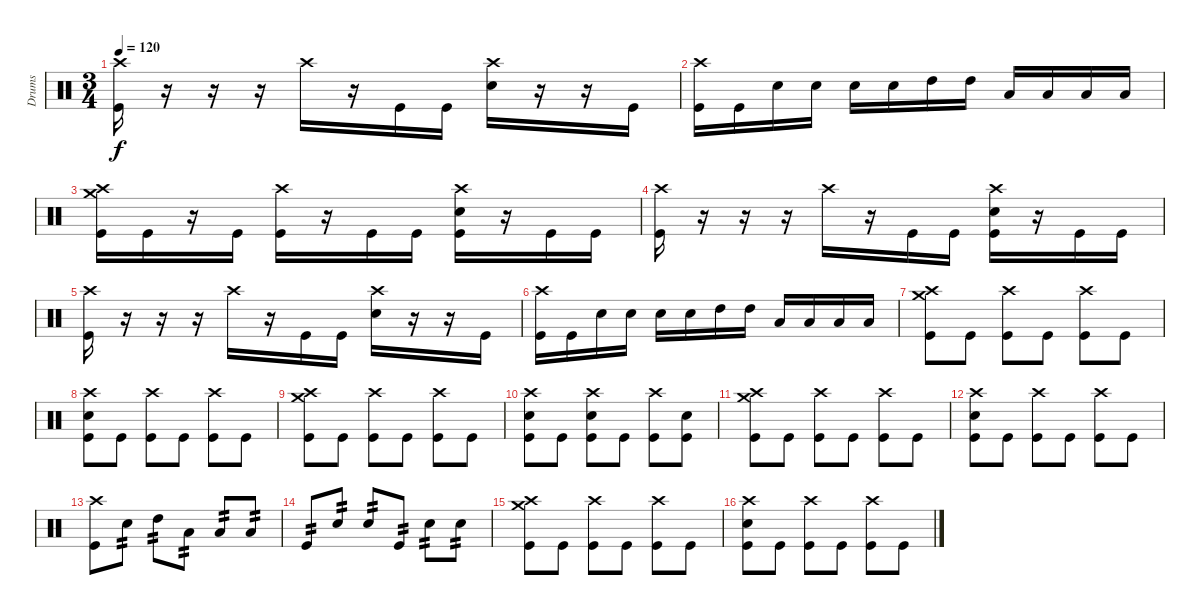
\track ("Drums" "Drums") {instrument percussion}
\staff {score}
\articulation defaults
\ts (3 4)
\tempo 120
\clef neutral
\ks c
("Crash high (hit)" "Kick (hit)").16{dy f} r.16 r.16 r.16 "Crash high (hit)".16 r.16 "Kick (hit)".16 "Kick (hit)".16 ("Crash high (hit)" "Snare (hit) 2").16 r.16 r.16 "Kick (hit)".16 |
("Crash high (hit)" "Kick (hit)").16 "Kick (hit)".16 "Snare (hit) 2".16 "Snare (hit) 2".16 "Snare (hit) 2".16 "Snare (hit) 2".16 "High Tom (hit)".16 "High Tom (hit)".16 "Low Tom (hit)".16 "Low Tom (hit)".16 "Low Tom (hit)".16 "Low Tom (hit)".16 |
("Crash high (hit)" "Crash medium (hit)" "Kick (hit)").16 "Kick (hit)".16 r.16 "Kick (hit)".16 ("Crash high (hit)" "Kick (hit)").16 r.16 "Kick (hit)".16 "Kick (hit)".16 ("Crash high (hit)" "Snare (hit) 2" "Kick (hit)").16 r.16 "Kick (hit)".16 "Kick (hit)".16 |
("Crash high (hit)" "Kick (hit)").16 r.16 r.16 r.16 "Crash high (hit)".16 r.16 "Kick (hit)".16 "Kick (hit)".16 ("Crash high (hit)" "Snare (hit) 2" "Kick (hit)").16 r.16 "Kick (hit)".16 "Kick (hit)".16 |
("Crash high (hit)" "Kick (hit)").16 r.16 r.16 r.16 "Crash high (hit)".16 r.16 "Kick (hit)".16 "Kick (hit)".16 ("Crash high (hit)" "Snare (hit) 2").16 r.16 r.16 "Kick (hit)".16 |
("Crash high (hit)" "Kick (hit)").16 "Kick (hit)".16 "Snare (hit) 2".16 "Snare (hit) 2".16 "Snare (hit) 2".16 "Snare (hit) 2".16 "High Tom (hit)".16 "High Tom (hit)".16 "Low Tom (hit)".16 "Low Tom (hit)".16 "Low Tom (hit)".16 "Low Tom (hit)".16 |
("Crash high (hit)" "Crash medium (hit)" "Kick (hit)").8 "Kick (hit)".8 ("Crash high (hit)" "Kick (hit)").8 "Kick (hit)".8 ("Crash high (hit)" "Kick (hit)").8 "Kick (hit)".8 |
("Crash high (hit)" "Snare (hit) 2" "Kick (hit)").8 "Kick (hit)".8 ("Crash high (hit)" "Kick (hit)").8 "Kick (hit)".8 ("Crash high (hit)" "Kick (hit)").8 "Kick (hit)".8 |
("Crash medium (hit)" "Crash high (hit)" "Kick (hit)").8 "Kick (hit)".8 ("Crash high (hit)" "Kick (hit)").8 "Kick (hit)".8 ("Crash high (hit)" "Kick (hit)").8 "Kick (hit)".8 |
("Crash high (hit)" "Snare (hit) 2" "Kick (hit)").8 "Kick (hit)".8 ("Crash high (hit)" "Snare (hit) 2" "Kick (hit)").8 "Kick (hit)".8 ("Crash high (hit)" "Kick (hit)").8 ("Snare (hit) 2" "Kick (hit)").8 |
("Crash high (hit)" "Crash medium (hit)" "Kick (hit)").8 "Kick (hit)".8 ("Crash high (hit)" "Kick (hit)").8 "Kick (hit)".8 ("Crash high (hit)" "Kick (hit)").8 "Kick (hit)".8 |
("Crash high (hit)" "Snare (hit) 2" "Kick (hit)").8 "Kick (hit)".8 ("Crash high (hit)" "Kick (hit)").8 "Kick (hit)".8 ("Crash high (hit)" "Kick (hit)").8 "Kick (hit)".8 |
("Crash high (hit)" "Kick (hit)").8 "Snare (hit) 2".8{tp 2} "High Tom (hit)".8{tp 2} "Low Tom (hit)".8{tp 2} "Low Tom (hit)".8{tp 2} "Low Tom (hit)".8{tp 2} |
"Kick (hit)".8{tp 2} "Snare (hit) 2".8{tp 2} "Snare (hit) 2".8{tp 2} "Kick (hit)".8{tp 2} "Snare (hit) 2".8{tp 2} "Snare (hit) 2".8{tp 2} |
("Crash high (hit)" "Crash medium (hit)" "Kick (hit)").8 "Kick (hit)".8 ("Crash high (hit)" "Kick (hit)").8 "Kick (hit)".8 ("Crash high (hit)" "Kick (hit)").8 "Kick (hit)".8 |
("Crash high (hit)" "Snare (hit) 2" "Kick (hit)").8 "Kick (hit)".8 ("Crash high (hit)" "Kick (hit)").8 "Kick (hit)".8 ("Crash high (hit)" "Kick (hit)").8 "Kick (hit)".8
